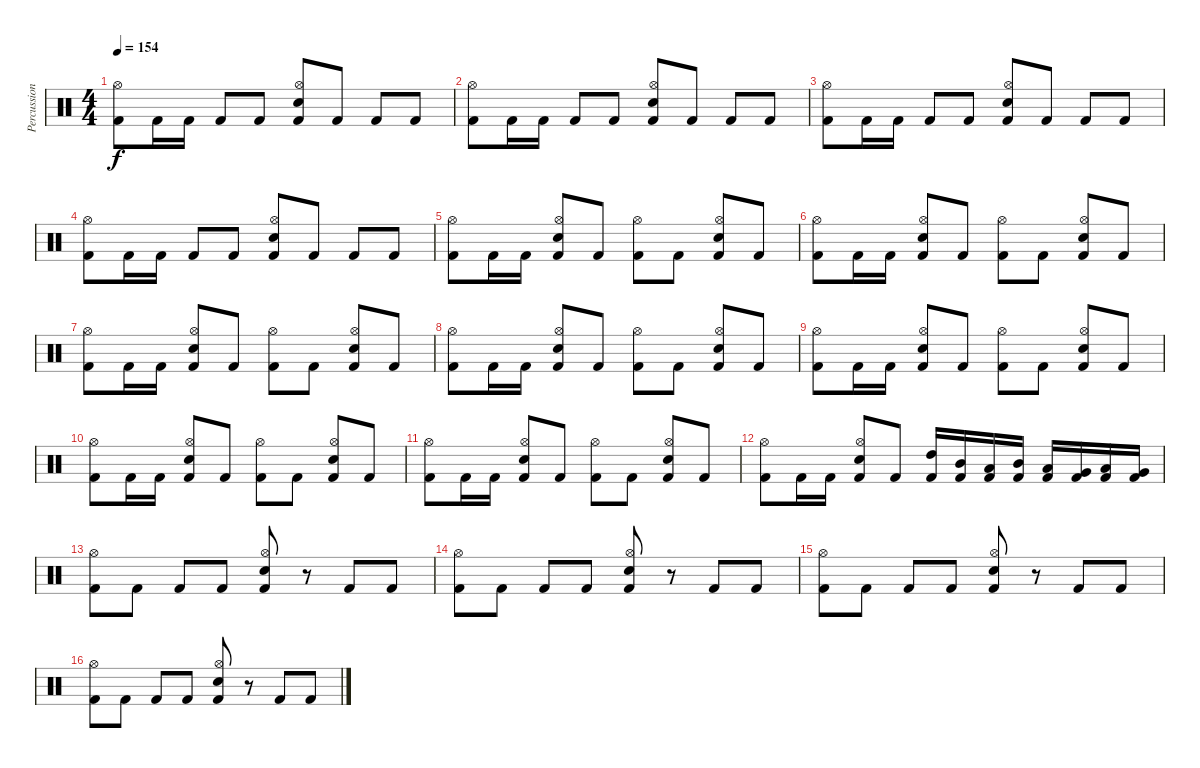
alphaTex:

\track ("Percussion" "Percussion") {instrument percussion}
\staff {score}
\articulation defaults
\ts (4 4)
\tempo 154
\clef neutral
\ks c
("Kick (hit) 2" "Hi-Hat (open)").8{dy f} "Kick (hit) 2".16 "Kick (hit) 2".16 "Kick (hit) 2".8 "Kick (hit) 2".8 ("Kick (hit) 2" "Hi-Hat (open)" "Electric Snare (hit)").8 "Kick (hit) 2".8 "Kick (hit) 2".8 "Kick (hit) 2".8 |
("Kick (hit) 2" "Hi-Hat (open)").8 "Kick (hit) 2".16 "Kick (hit) 2".16 "Kick (hit) 2".8 "Kick (hit) 2".8 ("Kick (hit) 2" "Hi-Hat (open)" "Electric Snare (hit)").8 "Kick (hit) 2".8 "Kick (hit) 2".8 "Kick (hit) 2".8 |
("Kick (hit) 2" "Hi-Hat (open)").8 "Kick (hit) 2".16 "Kick (hit) 2".16 "Kick (hit) 2".8 "Kick (hit) 2".8 ("Kick (hit) 2" "Hi-Hat (open)" "Electric Snare (hit)").8 "Kick (hit) 2".8 "Kick (hit) 2".8 "Kick (hit) 2".8 |
("Kick (hit) 2" "Hi-Hat (open)").8 "Kick (hit) 2".16 "Kick (hit) 2".16 "Kick (hit) 2".8 "Kick (hit) 2".8 ("Kick (hit) 2" "Hi-Hat (open)" "Electric Snare (hit)").8 "Kick (hit) 2".8 "Kick (hit) 2".8 "Kick (hit) 2".8 |
("Kick (hit) 2" "Hi-Hat (open)").8 "Kick (hit) 2".16 "Kick (hit) 2".16 ("Kick (hit) 2" "Hi-Hat (open)" "Electric Snare (hit)").8 "Kick (hit) 2".8 ("Kick (hit) 2" "Hi-Hat (open)").8 "Kick (hit) 2".8 ("Kick (hit) 2" "Electric Snare (hit)" "Hi-Hat (open)").8 "Kick (hit) 2".8 |
("Kick (hit) 2" "Hi-Hat (open)").8 "Kick (hit) 2".16 "Kick (hit) 2".16 ("Kick (hit) 2" "Hi-Hat (open)" "Electric Snare (hit)").8 "Kick (hit) 2".8 ("Kick (hit) 2" "Hi-Hat (open)").8 "Kick (hit) 2".8 ("Kick (hit) 2" "Electric Snare (hit)" "Hi-Hat (open)").8 "Kick (hit) 2".8 |
("Kick (hit) 2" "Hi-Hat (open)").8 "Kick (hit) 2".16 "Kick (hit) 2".16 ("Kick (hit) 2" "Hi-Hat (open)" "Electric Snare (hit)").8 "Kick (hit) 2".8 ("Kick (hit) 2" "Hi-Hat (open)").8 "Kick (hit) 2".8 ("Kick (hit) 2" "Electric Snare (hit)" "Hi-Hat (open)").8 "Kick (hit) 2".8 |
("Kick (hit) 2" "Hi-Hat (open)").8 "Kick (hit) 2".16 "Kick (hit) 2".16 ("Kick (hit) 2" "Hi-Hat (open)" "Electric Snare (hit)").8 "Kick (hit) 2".8 ("Kick (hit) 2" "Hi-Hat (open)").8 "Kick (hit) 2".8 ("Kick (hit) 2" "Electric Snare (hit)" "Hi-Hat (open)").8 "Kick (hit) 2".8 |
("Kick (hit) 2" "Hi-Hat (open)").8 "Kick (hit) 2".16 "Kick (hit) 2".16 ("Kick (hit) 2" "Hi-Hat (open)" "Electric Snare (hit)").8 "Kick (hit) 2".8 ("Kick (hit) 2" "Hi-Hat (open)").8 "Kick (hit) 2".8 ("Kick (hit) 2" "Electric Snare (hit)" "Hi-Hat (open)").8 "Kick (hit) 2".8 |
("Kick (hit) 2" "Hi-Hat (open)").8 "Kick (hit) 2".16 "Kick (hit) 2".16 ("Kick (hit) 2" "Hi-Hat (open)" "Electric Snare (hit)").8 "Kick (hit) 2".8 ("Kick (hit) 2" "Hi-Hat (open)").8 "Kick (hit) 2".8 ("Kick (hit) 2" "Electric Snare (hit)" "Hi-Hat (open)").8 "Kick (hit) 2".8 |
("Kick (hit) 2" "Hi-Hat (open)").8 "Kick (hit) 2".16 "Kick (hit) 2".16 ("Kick (hit) 2" "Hi-Hat (open)" "Electric Snare (hit)").8 "Kick (hit) 2".8 ("Kick (hit) 2" "Hi-Hat (open)").8 "Kick (hit) 2".8 ("Kick (hit) 2" "Electric Snare (hit)" "Hi-Hat (open)").8 "Kick (hit) 2".8 |
("Kick (hit) 2" "Hi-Hat (open)").8 "Kick (hit) 2".16 "Kick (hit) 2".16 ("Kick (hit) 2" "Hi-Hat (open)" "Electric Snare (hit)").8 "Kick (hit) 2".8 ("Kick (hit) 2" "High Tom (hit)").16 ("Kick (hit) 2" "Mid Tom (hit)").16 ("Kick (hit) 2" "Low Tom (hit)").16 ("Kick (hit) 2" "Mid Tom (hit)").16 ("Kick (hit) 2" "Low Tom (hit)").16 ("Kick (hit) 2" "Very Low Tom (hit)").16 ("Kick (hit) 2" "Low Tom (hit)").16 ("Kick (hit) 2" "Very Low Tom (hit)").16 |
("Kick (hit) 2" "Hi-Hat (open)").8 "Kick (hit) 2".8 "Kick (hit) 2".8 "Kick (hit) 2".8 ("Kick (hit) 2" "Electric Snare (hit)" "Hi-Hat (open)").8 r.8 "Kick (hit) 2".8 "Kick (hit) 2".8 |
("Kick (hit) 2" "Hi-Hat (open)").8 "Kick (hit) 2".8 "Kick (hit) 2".8 "Kick (hit) 2".8 ("Kick (hit) 2" "Electric Snare (hit)" "Hi-Hat (open)").8 r.8 "Kick (hit) 2".8 "Kick (hit) 2".8 |
("Kick (hit) 2" "Hi-Hat (open)").8 "Kick (hit) 2".8 "Kick (hit) 2".8 "Kick (hit) 2".8 ("Kick (hit) 2" "Electric Snare (hit)" "Hi-Hat (open)").8 r.8 "Kick (hit) 2".8 "Kick (hit) 2".8 |
("Kick (hit) 2" "Hi-Hat (open)").8 "Kick (hit) 2".8 "Kick (hit) 2".8 "Kick (hit) 2".8 ("Kick (hit) 2" "Electric Snare (hit)" "Hi-Hat (open)").8 r.8 "Kick (hit) 2".8 "Kick (hit) 2".8
